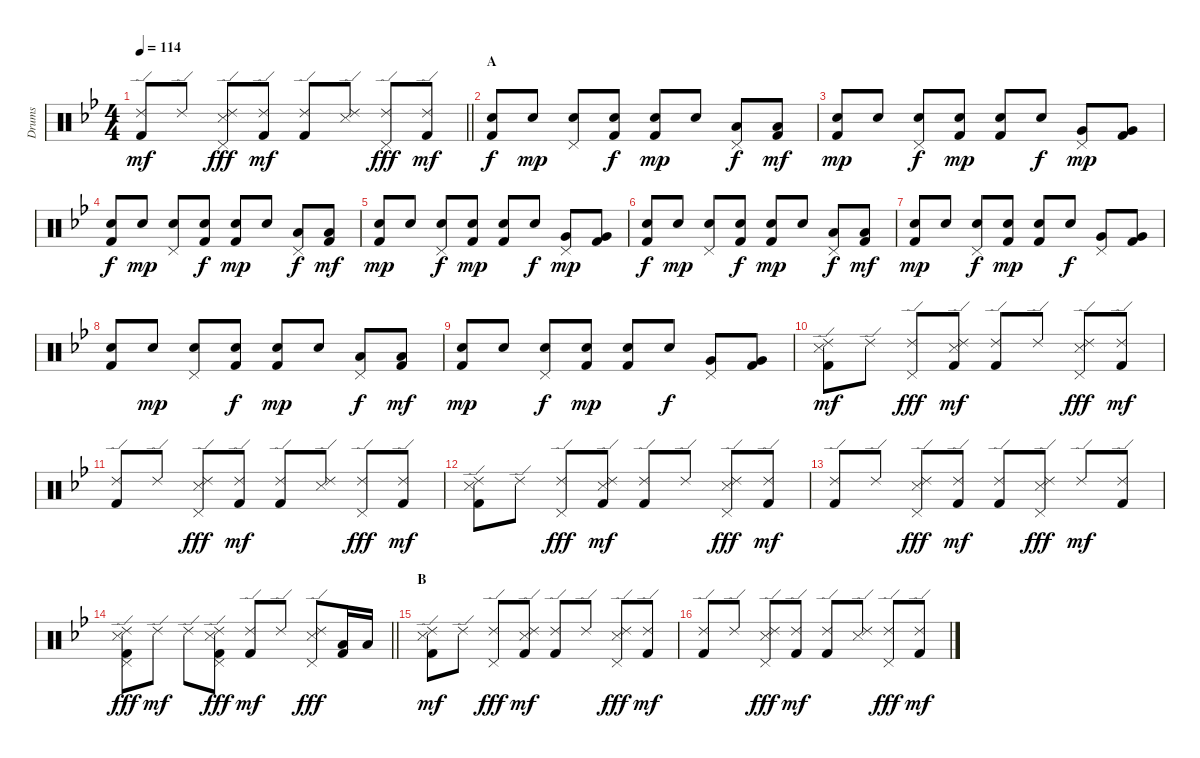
\track ("Drums" "Drums") {instrument percussion}
\staff {score}
\articulation defaults
\ts (4 4)
\tempo 114
\clef neutral
\barLineRight lightlight
\ks gminor
("Ride (edge) 2" "Kick (hit) 2").8{dy mf} "Ride (edge) 2".8 ("Ride (edge) 2" "Pedal Hi-Hat (hit)" "Snare (side stick) 3").8{dy fff} ("Ride (edge) 2" "Kick (hit) 2").8{dy mf} ("Ride (edge) 2" "Kick (hit) 2").8 ("Ride (edge) 2" "Snare (side stick) 3").8 ("Ride (edge) 2" "Pedal Hi-Hat (hit)").8{dy fff} ("Ride (edge) 2" "Kick (hit) 2").8{dy mf} |
\section ("" "A")
("Electric Snare (hit)" "Kick (hit) 2").8{dy f} "Electric Snare (hit)".8{dy mp} ("Pedal Hi-Hat (hit)" "Electric Snare (hit)").8 ("Electric Snare (hit)" "Kick (hit) 2").8{dy f} ("Electric Snare (hit)" "Kick (hit) 2").8{dy mp} "Electric Snare (hit)".8 ("Pedal Hi-Hat (hit)" "Low Tom (hit)").8{dy f} ("Low Tom (hit)" "Kick (hit) 2").8{dy mf} |
("Electric Snare (hit)" "Kick (hit) 2").8{dy mp} "Electric Snare (hit)".8 ("Pedal Hi-Hat (hit)" "Electric Snare (hit)").8{dy f} ("Electric Snare (hit)" "Kick (hit) 2").8{dy mp} ("Electric Snare (hit)" "Kick (hit) 2").8 "Electric Snare (hit)".8{dy f} ("Pedal Hi-Hat (hit)" "Very Low Tom (hit)").8{dy mp} ("Very Low Tom (hit)" "Kick (hit) 2").8 |
("Electric Snare (hit)" "Kick (hit) 2").8{dy f} "Electric Snare (hit)".8{dy mp} ("Pedal Hi-Hat (hit)" "Electric Snare (hit)").8 ("Electric Snare (hit)" "Kick (hit) 2").8{dy f} ("Electric Snare (hit)" "Kick (hit) 2").8{dy mp} "Electric Snare (hit)".8 ("Pedal Hi-Hat (hit)" "Low Tom (hit)").8{dy f} ("Low Tom (hit)" "Kick (hit) 2").8{dy mf} |
("Electric Snare (hit)" "Kick (hit) 2").8{dy mp} "Electric Snare (hit)".8 ("Pedal Hi-Hat (hit)" "Electric Snare (hit)").8{dy f} ("Electric Snare (hit)" "Kick (hit) 2").8{dy mp} ("Electric Snare (hit)" "Kick (hit) 2").8 "Electric Snare (hit)".8{dy f} ("Pedal Hi-Hat (hit)" "Very Low Tom (hit)").8{dy mp} ("Very Low Tom (hit)" "Kick (hit) 2").8 |
("Electric Snare (hit)" "Kick (hit) 2").8{dy f} "Electric Snare (hit)".8{dy mp} ("Pedal Hi-Hat (hit)" "Electric Snare (hit)").8 ("Electric Snare (hit)" "Kick (hit) 2").8{dy f} ("Electric Snare (hit)" "Kick (hit) 2").8{dy mp} "Electric Snare (hit)".8 ("Pedal Hi-Hat (hit)" "Low Tom (hit)").8{dy f} ("Low Tom (hit)" "Kick (hit) 2").8{dy mf} |
("Electric Snare (hit)" "Kick (hit) 2").8{dy mp} "Electric Snare (hit)".8 ("Pedal Hi-Hat (hit)" "Electric Snare (hit)").8{dy f} ("Electric Snare (hit)" "Kick (hit) 2").8{dy mp} ("Electric Snare (hit)" "Kick (hit) 2").8 "Electric Snare (hit)".8{dy f} ("Pedal Hi-Hat (hit)" "Very Low Tom (hit)").8 ("Very Low Tom (hit)" "Kick (hit) 2").8 |
("Electric Snare (hit)" "Kick (hit) 2").8 "Electric Snare (hit)".8{dy mp} ("Pedal Hi-Hat (hit)" "Electric Snare (hit)").8 ("Electric Snare (hit)" "Kick (hit) 2").8{dy f} ("Electric Snare (hit)" "Kick (hit) 2").8{dy mp} "Electric Snare (hit)".8 ("Pedal Hi-Hat (hit)" "Low Tom (hit)").8{dy f} ("Low Tom (hit)" "Kick (hit) 2").8{dy mf} |
("Electric Snare (hit)" "Kick (hit) 2").8{dy mp} "Electric Snare (hit)".8 ("Pedal Hi-Hat (hit)" "Electric Snare (hit)").8{dy f} ("Electric Snare (hit)" "Kick (hit) 2").8{dy mp} ("Electric Snare (hit)" "Kick (hit) 2").8 "Electric Snare (hit)".8{dy f} ("Pedal Hi-Hat (hit)" "Very Low Tom (hit)").8 ("Very Low Tom (hit)" "Kick (hit) 2").8 |
("Ride (edge) 2" "Snare (side stick) 3" "Kick (hit) 2").8{dy mf} "Ride (edge) 2".8 ("Ride (edge) 2" "Pedal Hi-Hat (hit)").8{dy fff} ("Ride (edge) 2" "Snare (side stick) 3" "Kick (hit) 2").8{dy mf} ("Ride (edge) 2" "Kick (hit) 2").8 "Ride (edge) 2".8 ("Ride (edge) 2" "Pedal Hi-Hat (hit)" "Snare (side stick) 3").8{dy fff} ("Ride (edge) 2" "Kick (hit) 2").8{dy mf} |
("Ride (edge) 2" "Kick (hit) 2").8 "Ride (edge) 2".8 ("Ride (edge) 2" "Pedal Hi-Hat (hit)" "Snare (side stick) 3").8{dy fff} ("Ride (edge) 2" "Kick (hit) 2").8{dy mf} ("Ride (edge) 2" "Kick (hit) 2").8 ("Ride (edge) 2" "Snare (side stick) 3").8 ("Ride (edge) 2" "Pedal Hi-Hat (hit)").8{dy fff} ("Ride (edge) 2" "Kick (hit) 2").8{dy mf} |
("Ride (edge) 2" "Snare (side stick) 3" "Kick (hit) 2").8 "Ride (edge) 2".8 ("Ride (edge) 2" "Pedal Hi-Hat (hit)").8{dy fff} ("Ride (edge) 2" "Snare (side stick) 3" "Kick (hit) 2").8{dy mf} ("Ride (edge) 2" "Kick (hit) 2").8 "Ride (edge) 2".8 ("Ride (edge) 2" "Pedal Hi-Hat (hit)" "Snare (side stick) 3").8{dy fff} ("Ride (edge) 2" "Kick (hit) 2").8{dy mf} |
("Ride (edge) 2" "Kick (hit) 2").8 "Ride (edge) 2".8 ("Ride (edge) 2" "Pedal Hi-Hat (hit)" "Snare (side stick) 3").8{dy fff} ("Ride (edge) 2" "Kick (hit) 2").8{dy mf} ("Ride (edge) 2" "Kick (hit) 2").8 ("Ride (edge) 2" "Pedal Hi-Hat (hit)" "Snare (side stick) 3").8{dy fff} "Ride (edge) 2".8{dy mf} ("Ride (edge) 2" "Kick (hit) 2").8 |
\barLineRight lightlight
("Ride (edge) 2" "Pedal Hi-Hat (hit)" "Snare (side stick) 3" "Kick (hit) 2").8{dy fff} "Ride (edge) 2".8{dy mf} "Ride (edge) 2".8 ("Ride (edge) 2" "Pedal Hi-Hat (hit)" "Snare (side stick) 3" "Kick (hit) 2").8{dy fff} ("Ride (edge) 2" "Kick (hit) 2").8{dy mf} "Ride (edge) 2".8 ("Ride (edge) 2" "Pedal Hi-Hat (hit)" "Snare (side stick) 3").8{dy fff} ("Low Tom (hit)" "Kick (hit) 2").16 "Low Tom (hit)".16 |
\section ("" "B")
("Ride (edge) 2" "Snare (side stick) 3" "Kick (hit) 2").8{dy mf} "Ride (edge) 2".8 ("Ride (edge) 2" "Pedal Hi-Hat (hit)").8{dy fff} ("Ride (edge) 2" "Snare (side stick) 3" "Kick (hit) 2").8{dy mf} ("Ride (edge) 2" "Kick (hit) 2").8 "Ride (edge) 2".8 ("Ride (edge) 2" "Pedal Hi-Hat (hit)" "Snare (side stick) 3").8{dy fff} ("Ride (edge) 2" "Kick (hit) 2").8{dy mf} |
("Ride (edge) 2" "Kick (hit) 2").8 "Ride (edge) 2".8 ("Ride (edge) 2" "Pedal Hi-Hat (hit)" "Snare (side stick) 3").8{dy fff} ("Ride (edge) 2" "Kick (hit) 2").8{dy mf} ("Ride (edge) 2" "Kick (hit) 2").8 ("Ride (edge) 2" "Snare (side stick) 3").8 ("Ride (edge) 2" "Pedal Hi-Hat (hit)").8{dy fff} ("Ride (edge) 2" "Kick (hit) 2").8{dy mf}
